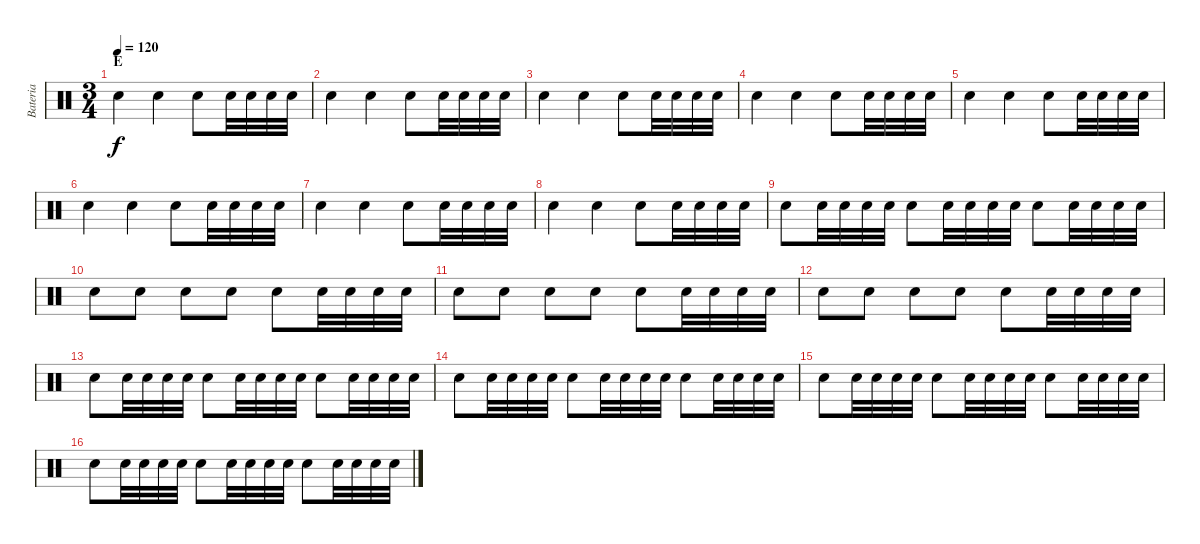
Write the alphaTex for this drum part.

\track ("Bateria" "Bateria") {instrument percussion}
\staff {score}
\articulation defaults
\ts (3 4)
\section ("" "E")
\tempo 120
\clef neutral
\ks c "Electric Snare (hit)".4{dy f} "Electric Snare (hit)".4 "Electric Snare (hit)".8 "Electric Snare (hit)".32 "Electric Snare (hit)".32 "Electric Snare (hit)".32 "Electric Snare (hit)".32
|
"Electric Snare (hit)".4 "Electric Snare (hit)".4 "Electric Snare (hit)".8 "Electric Snare (hit)".32 "Electric Snare (hit)".32 "Electric Snare (hit)".32 "Electric Snare (hit)".32 |
"Electric Snare (hit)".4 "Electric Snare (hit)".4 "Electric Snare (hit)".8 "Electric Snare (hit)".32 "Electric Snare (hit)".32 "Electric Snare (hit)".32 "Electric Snare (hit)".32 |
"Electric Snare (hit)".4 "Electric Snare (hit)".4 "Electric Snare (hit)".8 "Electric Snare (hit)".32 "Electric Snare (hit)".32 "Electric Snare (hit)".32 "Electric Snare (hit)".32 |
"Electric Snare (hit)".4 "Electric Snare (hit)".4 "Electric Snare (hit)".8 "Electric Snare (hit)".32 "Electric Snare (hit)".32 "Electric Snare (hit)".32 "Electric Snare (hit)".32 |
"Electric Snare (hit)".4 "Electric Snare (hit)".4 "Electric Snare (hit)".8 "Electric Snare (hit)".32 "Electric Snare (hit)".32 "Electric Snare (hit)".32 "Electric Snare (hit)".32 |
"Electric Snare (hit)".4 "Electric Snare (hit)".4 "Electric Snare (hit)".8 "Electric Snare (hit)".32 "Electric Snare (hit)".32 "Electric Snare (hit)".32 "Electric Snare (hit)".32 |
"Electric Snare (hit)".4 "Electric Snare (hit)".4 "Electric Snare (hit)".8 "Electric Snare (hit)".32 "Electric Snare (hit)".32 "Electric Snare (hit)".32 "Electric Snare (hit)".32 |
"Electric Snare (hit)".8 "Electric Snare (hit)".32 "Electric Snare (hit)".32 "Electric Snare (hit)".32 "Electric Snare (hit)".32 "Electric Snare (hit)".8 "Electric Snare (hit)".32 "Electric Snare (hit)".32 "Electric Snare (hit)".32 "Electric Snare (hit)".32 "Electric Snare (hit)".8 "Electric Snare (hit)".32 "Electric Snare (hit)".32 "Electric Snare (hit)".32 "Electric Snare (hit)".32 |
"Electric Snare (hit)".8 "Electric Snare (hit)".8 "Electric Snare (hit)".8 "Electric Snare (hit)".8 "Electric Snare (hit)".8 "Electric Snare (hit)".32 "Electric Snare (hit)".32 "Electric Snare (hit)".32 "Electric Snare (hit)".32 |
"Electric Snare (hit)".8 "Electric Snare (hit)".8 "Electric Snare (hit)".8 "Electric Snare (hit)".8 "Electric Snare (hit)".8 "Electric Snare (hit)".32 "Electric Snare (hit)".32 "Electric Snare (hit)".32 "Electric Snare (hit)".32 |
"Electric Snare (hit)".8 "Electric Snare (hit)".8 "Electric Snare (hit)".8 "Electric Snare (hit)".8 "Electric Snare (hit)".8 "Electric Snare (hit)".32 "Electric Snare (hit)".32 "Electric Snare (hit)".32 "Electric Snare (hit)".32 |
"Electric Snare (hit)".8 "Electric Snare (hit)".32 "Electric Snare (hit)".32 "Electric Snare (hit)".32 "Electric Snare (hit)".32 "Electric Snare (hit)".8 "Electric Snare (hit)".32 "Electric Snare (hit)".32 "Electric Snare (hit)".32 "Electric Snare (hit)".32 "Electric Snare (hit)".8 "Electric Snare (hit)".32 "Electric Snare (hit)".32 "Electric Snare (hit)".32 "Electric Snare (hit)".32 |
"Electric Snare (hit)".8 "Electric Snare (hit)".32 "Electric Snare (hit)".32 "Electric Snare (hit)".32 "Electric Snare (hit)".32 "Electric Snare (hit)".8 "Electric Snare (hit)".32 "Electric Snare (hit)".32 "Electric Snare (hit)".32 "Electric Snare (hit)".32 "Electric Snare (hit)".8 "Electric Snare (hit)".32 "Electric Snare (hit)".32 "Electric Snare (hit)".32 "Electric Snare (hit)".32 |
"Electric Snare (hit)".8 "Electric Snare (hit)".32 "Electric Snare (hit)".32 "Electric Snare (hit)".32 "Electric Snare (hit)".32 "Electric Snare (hit)".8 "Electric Snare (hit)".32 "Electric Snare (hit)".32 "Electric Snare (hit)".32 "Electric Snare (hit)".32 "Electric Snare (hit)".8 "Electric Snare (hit)".32 "Electric Snare (hit)".32 "Electric Snare (hit)".32 "Electric Snare (hit)".32 |
"Electric Snare (hit)".8 "Electric Snare (hit)".32 "Electric Snare (hit)".32 "Electric Snare (hit)".32 "Electric Snare (hit)".32 "Electric Snare (hit)".8 "Electric Snare (hit)".32 "Electric Snare (hit)".32 "Electric Snare (hit)".32 "Electric Snare (hit)".32 "Electric Snare (hit)".8 "Electric Snare (hit)".32 "Electric Snare (hit)".32 "Electric Snare (hit)".32 "Electric Snare (hit)".32
